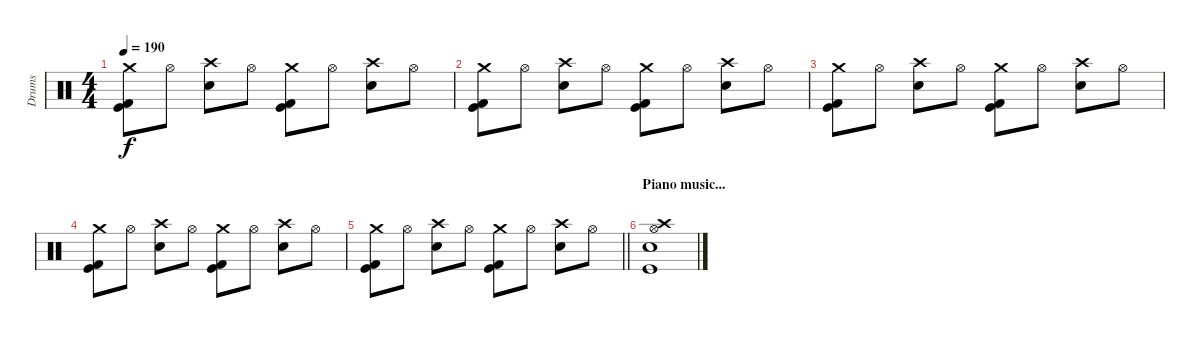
\track ("Drums" "Drums") {instrument percussion}
\staff {score}
\articulation defaults
\ts (4 4)
\tempo 190
\clef neutral
\ks c
("Crash medium (hit)" "Kick (hit) 2" "Kick (hit)").8{dy f} "Hi-Hat (open)".8 ("Crash high (hit)" "Electric Snare (hit)").8 "Hi-Hat (open)".8 ("Crash medium (hit)" "Kick (hit) 2" "Kick (hit)").8 "Hi-Hat (open)".8 ("Crash high (hit)" "Electric Snare (hit)").8 "Hi-Hat (open)".8 |
("Crash medium (hit)" "Kick (hit) 2" "Kick (hit)").8 "Hi-Hat (open)".8 ("Crash high (hit)" "Electric Snare (hit)").8 "Hi-Hat (open)".8 ("Crash medium (hit)" "Kick (hit) 2" "Kick (hit)").8 "Hi-Hat (open)".8 ("Crash high (hit)" "Electric Snare (hit)").8 "Hi-Hat (open)".8 |
("Crash medium (hit)" "Kick (hit) 2" "Kick (hit)").8 "Hi-Hat (open)".8 ("Crash high (hit)" "Electric Snare (hit)").8 "Hi-Hat (open)".8 ("Crash medium (hit)" "Kick (hit) 2" "Kick (hit)").8 "Hi-Hat (open)".8 ("Crash high (hit)" "Electric Snare (hit)").8 "Hi-Hat (open)".8 |
("Crash medium (hit)" "Kick (hit) 2" "Kick (hit)").8 "Hi-Hat (open)".8 ("Crash high (hit)" "Electric Snare (hit)").8 "Hi-Hat (open)".8 ("Crash medium (hit)" "Kick (hit) 2" "Kick (hit)").8 "Hi-Hat (open)".8 ("Crash high (hit)" "Electric Snare (hit)").8 "Hi-Hat (open)".8 |
\barLineRight lightlight
("Crash medium (hit)" "Kick (hit) 2" "Kick (hit)").8 "Hi-Hat (open)".8 ("Crash high (hit)" "Electric Snare (hit)").8 "Hi-Hat (open)".8 ("Crash medium (hit)" "Kick (hit) 2" "Kick (hit)").8 "Hi-Hat (open)".8 ("Crash high (hit)" "Electric Snare (hit)").8 "Hi-Hat (open)".8 |
\section ("" "Piano music...")
("Crash high (hit)" "Hi-Hat (open)" "Electric Snare (hit)" "Kick (hit)").1
